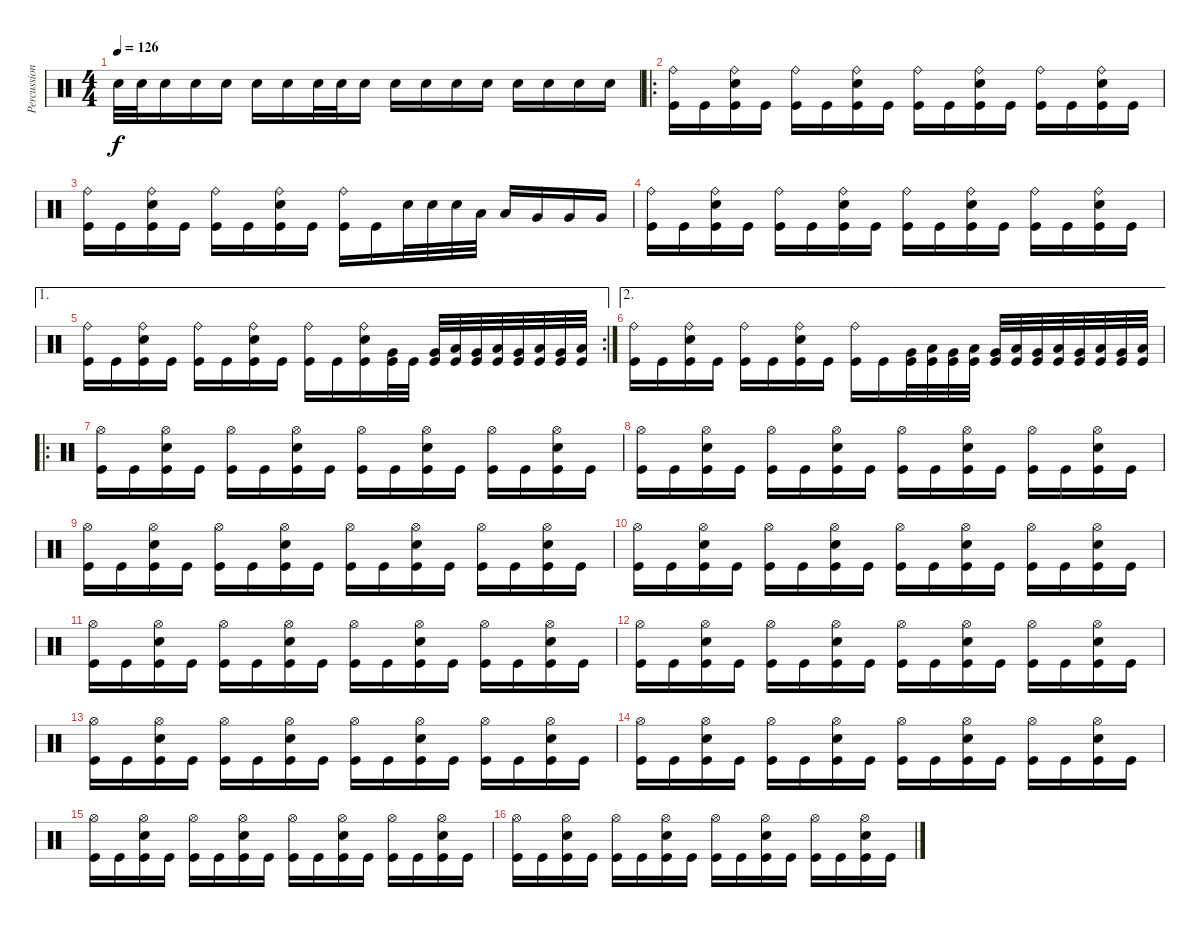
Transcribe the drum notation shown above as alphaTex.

\track ("Percussions" "Percussion") {instrument percussion}
\staff {score}
\articulation defaults
\ts (4 4)
\tempo 126
\clef neutral
\ks c "Electric Snare (hit)".32{dy f} "Electric Snare (hit)".32 "Electric Snare (hit)".16 "Electric Snare (hit)".16 "Electric Snare (hit)".16 "Electric Snare (hit)".16 "Electric Snare (hit)".16 "Electric Snare (hit)".32 "Electric Snare (hit)".32 "Electric Snare (hit)".16 "Electric Snare (hit)".16 "Electric Snare (hit)".16 "Electric Snare (hit)".16 "Electric Snare (hit)".16 "Electric Snare (hit)".16 "Electric Snare (hit)".16 "Electric Snare (hit)".16 "Electric Snare (hit)".16
|
\ro
("Kick (hit)" "Ride (bell)").16 "Kick (hit)".16 ("Kick (hit)" "Electric Snare (hit)" "Ride (bell)").16 "Kick (hit)".16 ("Kick (hit)" "Ride (bell)").16 "Kick (hit)".16 ("Kick (hit)" "Electric Snare (hit)" "Ride (bell)").16 "Kick (hit)".16 ("Kick (hit)" "Ride (bell)").16 "Kick (hit)".16 ("Kick (hit)" "Electric Snare (hit)" "Ride (bell)").16 "Kick (hit)".16 ("Kick (hit)" "Ride (bell)").16 "Kick (hit)".16 ("Kick (hit)" "Electric Snare (hit)" "Ride (bell)").16 "Kick (hit)".16 |
("Kick (hit)" "Ride (bell)").16 "Kick (hit)".16 ("Kick (hit)" "Electric Snare (hit)" "Ride (bell)").16 "Kick (hit)".16 ("Kick (hit)" "Ride (bell)").16 "Kick (hit)".16 ("Kick (hit)" "Electric Snare (hit)" "Ride (bell)").16 "Kick (hit)".16 ("Kick (hit)" "Ride (bell)").16 "Kick (hit)".16 "Electric Snare (hit)".32 "Electric Snare (hit)".32 "Electric Snare (hit)".32 "Low Tom (hit)".32 "Low Tom (hit)".16 "Very Low Tom (hit)".16 "Very Low Tom (hit)".16 "Very Low Tom (hit)".16 |
("Kick (hit)" "Ride (bell)").16 "Kick (hit)".16 ("Kick (hit)" "Electric Snare (hit)" "Ride (bell)").16 "Kick (hit)".16 ("Kick (hit)" "Ride (bell)").16 "Kick (hit)".16 ("Kick (hit)" "Electric Snare (hit)" "Ride (bell)").16 "Kick (hit)".16 ("Kick (hit)" "Ride (bell)").16 "Kick (hit)".16 ("Kick (hit)" "Electric Snare (hit)" "Ride (bell)").16 "Kick (hit)".16 ("Kick (hit)" "Ride (bell)").16 "Kick (hit)".16 ("Kick (hit)" "Electric Snare (hit)" "Ride (bell)").16 "Kick (hit)".16 |
\ae 1
\rc 2
("Kick (hit)" "Ride (bell)").16 "Kick (hit)".16 ("Kick (hit)" "Electric Snare (hit)" "Ride (bell)").16 "Kick (hit)".16 ("Kick (hit)" "Ride (bell)").16 "Kick (hit)".16 ("Kick (hit)" "Electric Snare (hit)" "Ride (bell)").16 "Kick (hit)".16 ("Kick (hit)" "Ride (bell)").16 "Kick (hit)".16 ("Kick (hit)" "Electric Snare (hit)" "Ride (bell)").16 ("Kick (hit)" "Very Low Tom (hit)").32 "Kick (hit)".32 ("Kick (hit)" "Very Low Tom (hit)").32 ("Kick (hit)" "Low Floor Tom (hit)").32 ("Kick (hit)" "Very Low Tom (hit)").32 ("Kick (hit)" "Low Floor Tom (hit)").32 ("Kick (hit)" "Very Low Tom (hit)").32 ("Kick (hit)" "Low Floor Tom (hit)").32 ("Kick (hit)" "Very Low Tom (hit)").32 ("Kick (hit)" "Low Floor Tom (hit)").32 |
\ae 2
("Kick (hit)" "Ride (bell)").16 "Kick (hit)".16 ("Kick (hit)" "Electric Snare (hit)" "Ride (bell)").16 "Kick (hit)".16 ("Kick (hit)" "Ride (bell)").16 "Kick (hit)".16 ("Kick (hit)" "Electric Snare (hit)" "Ride (bell)").16 "Kick (hit)".16 ("Kick (hit)" "Ride (bell)").16 "Kick (hit)".16 ("Kick (hit)" "Very Low Tom (hit)").32 ("Kick (hit)" "Low Floor Tom (hit)").32 ("Kick (hit)" "Very Low Tom (hit)").32 ("Kick (hit)" "Low Floor Tom (hit)").32 ("Kick (hit)" "Very Low Tom (hit)").32 ("Kick (hit)" "Low Floor Tom (hit)").32 ("Kick (hit)" "Very Low Tom (hit)").32 ("Kick (hit)" "Low Floor Tom (hit)").32 ("Kick (hit)" "Very Low Tom (hit)").32 ("Kick (hit)" "Low Floor Tom (hit)").32 ("Kick (hit)" "Very Low Tom (hit)").32 ("Kick (hit)" "Low Floor Tom (hit)").32 |
\ro
("Kick (hit)" "Hi-Hat (open)").16 "Kick (hit)".16 ("Kick (hit)" "Electric Snare (hit)" "Hi-Hat (open)").16 "Kick (hit)".16 ("Kick (hit)" "Hi-Hat (open)").16 "Kick (hit)".16 ("Kick (hit)" "Electric Snare (hit)" "Hi-Hat (open)").16 "Kick (hit)".16 ("Kick (hit)" "Hi-Hat (open)").16 "Kick (hit)".16 ("Kick (hit)" "Electric Snare (hit)" "Hi-Hat (open)").16 "Kick (hit)".16 ("Kick (hit)" "Hi-Hat (open)").16 "Kick (hit)".16 ("Kick (hit)" "Electric Snare (hit)" "Hi-Hat (open)").16 "Kick (hit)".16 |
("Kick (hit)" "Hi-Hat (open)").16 "Kick (hit)".16 ("Kick (hit)" "Electric Snare (hit)" "Hi-Hat (open)").16 "Kick (hit)".16 ("Kick (hit)" "Hi-Hat (open)").16 "Kick (hit)".16 ("Kick (hit)" "Electric Snare (hit)" "Hi-Hat (open)").16 "Kick (hit)".16 ("Kick (hit)" "Hi-Hat (open)").16 "Kick (hit)".16 ("Kick (hit)" "Electric Snare (hit)" "Hi-Hat (open)").16 "Kick (hit)".16 ("Kick (hit)" "Hi-Hat (open)").16 "Kick (hit)".16 ("Kick (hit)" "Electric Snare (hit)" "Hi-Hat (open)").16 "Kick (hit)".16 |
("Kick (hit)" "Hi-Hat (open)").16 "Kick (hit)".16 ("Kick (hit)" "Electric Snare (hit)" "Hi-Hat (open)").16 "Kick (hit)".16 ("Kick (hit)" "Hi-Hat (open)").16 "Kick (hit)".16 ("Kick (hit)" "Electric Snare (hit)" "Hi-Hat (open)").16 "Kick (hit)".16 ("Kick (hit)" "Hi-Hat (open)").16 "Kick (hit)".16 ("Kick (hit)" "Electric Snare (hit)" "Hi-Hat (open)").16 "Kick (hit)".16 ("Kick (hit)" "Hi-Hat (open)").16 "Kick (hit)".16 ("Kick (hit)" "Electric Snare (hit)" "Hi-Hat (open)").16 "Kick (hit)".16 |
("Kick (hit)" "Hi-Hat (open)").16 "Kick (hit)".16 ("Kick (hit)" "Electric Snare (hit)" "Hi-Hat (open)").16 "Kick (hit)".16 ("Kick (hit)" "Hi-Hat (open)").16 "Kick (hit)".16 ("Kick (hit)" "Electric Snare (hit)" "Hi-Hat (open)").16 "Kick (hit)".16 ("Kick (hit)" "Hi-Hat (open)").16 "Kick (hit)".16 ("Kick (hit)" "Electric Snare (hit)" "Hi-Hat (open)").16 "Kick (hit)".16 ("Kick (hit)" "Hi-Hat (open)").16 "Kick (hit)".16 ("Kick (hit)" "Electric Snare (hit)" "Hi-Hat (open)").16 "Kick (hit)".16 |
("Kick (hit)" "Hi-Hat (open)").16 "Kick (hit)".16 ("Kick (hit)" "Electric Snare (hit)" "Hi-Hat (open)").16 "Kick (hit)".16 ("Kick (hit)" "Hi-Hat (open)").16 "Kick (hit)".16 ("Kick (hit)" "Electric Snare (hit)" "Hi-Hat (open)").16 "Kick (hit)".16 ("Kick (hit)" "Hi-Hat (open)").16 "Kick (hit)".16 ("Kick (hit)" "Electric Snare (hit)" "Hi-Hat (open)").16 "Kick (hit)".16 ("Kick (hit)" "Hi-Hat (open)").16 "Kick (hit)".16 ("Kick (hit)" "Electric Snare (hit)" "Hi-Hat (open)").16 "Kick (hit)".16 |
("Kick (hit)" "Hi-Hat (open)").16 "Kick (hit)".16 ("Kick (hit)" "Electric Snare (hit)" "Hi-Hat (open)").16 "Kick (hit)".16 ("Kick (hit)" "Hi-Hat (open)").16 "Kick (hit)".16 ("Kick (hit)" "Electric Snare (hit)" "Hi-Hat (open)").16 "Kick (hit)".16 ("Kick (hit)" "Hi-Hat (open)").16 "Kick (hit)".16 ("Kick (hit)" "Electric Snare (hit)" "Hi-Hat (open)").16 "Kick (hit)".16 ("Kick (hit)" "Hi-Hat (open)").16 "Kick (hit)".16 ("Kick (hit)" "Electric Snare (hit)" "Hi-Hat (open)").16 "Kick (hit)".16 |
("Kick (hit)" "Hi-Hat (open)").16 "Kick (hit)".16 ("Kick (hit)" "Electric Snare (hit)" "Hi-Hat (open)").16 "Kick (hit)".16 ("Kick (hit)" "Hi-Hat (open)").16 "Kick (hit)".16 ("Kick (hit)" "Electric Snare (hit)" "Hi-Hat (open)").16 "Kick (hit)".16 ("Kick (hit)" "Hi-Hat (open)").16 "Kick (hit)".16 ("Kick (hit)" "Electric Snare (hit)" "Hi-Hat (open)").16 "Kick (hit)".16 ("Kick (hit)" "Hi-Hat (open)").16 "Kick (hit)".16 ("Kick (hit)" "Electric Snare (hit)" "Hi-Hat (open)").16 "Kick (hit)".16 |
("Kick (hit)" "Hi-Hat (open)").16 "Kick (hit)".16 ("Kick (hit)" "Electric Snare (hit)" "Hi-Hat (open)").16 "Kick (hit)".16 ("Kick (hit)" "Hi-Hat (open)").16 "Kick (hit)".16 ("Kick (hit)" "Electric Snare (hit)" "Hi-Hat (open)").16 "Kick (hit)".16 ("Kick (hit)" "Hi-Hat (open)").16 "Kick (hit)".16 ("Kick (hit)" "Electric Snare (hit)" "Hi-Hat (open)").16 "Kick (hit)".16 ("Kick (hit)" "Hi-Hat (open)").16 "Kick (hit)".16 ("Kick (hit)" "Electric Snare (hit)" "Hi-Hat (open)").16 "Kick (hit)".16 |
("Kick (hit)" "Hi-Hat (open)").16 "Kick (hit)".16 ("Kick (hit)" "Electric Snare (hit)" "Hi-Hat (open)").16 "Kick (hit)".16 ("Kick (hit)" "Hi-Hat (open)").16 "Kick (hit)".16 ("Kick (hit)" "Electric Snare (hit)" "Hi-Hat (open)").16 "Kick (hit)".16 ("Kick (hit)" "Hi-Hat (open)").16 "Kick (hit)".16 ("Kick (hit)" "Electric Snare (hit)" "Hi-Hat (open)").16 "Kick (hit)".16 ("Kick (hit)" "Hi-Hat (open)").16 "Kick (hit)".16 ("Kick (hit)" "Electric Snare (hit)" "Hi-Hat (open)").16 "Kick (hit)".16 |
("Kick (hit)" "Hi-Hat (open)").16 "Kick (hit)".16 ("Kick (hit)" "Electric Snare (hit)" "Hi-Hat (open)").16 "Kick (hit)".16 ("Kick (hit)" "Hi-Hat (open)").16 "Kick (hit)".16 ("Kick (hit)" "Electric Snare (hit)" "Hi-Hat (open)").16 "Kick (hit)".16 ("Kick (hit)" "Hi-Hat (open)").16 "Kick (hit)".16 ("Kick (hit)" "Electric Snare (hit)" "Hi-Hat (open)").16 "Kick (hit)".16 ("Kick (hit)" "Hi-Hat (open)").16 "Kick (hit)".16 ("Kick (hit)" "Electric Snare (hit)" "Hi-Hat (open)").16 "Kick (hit)".16
